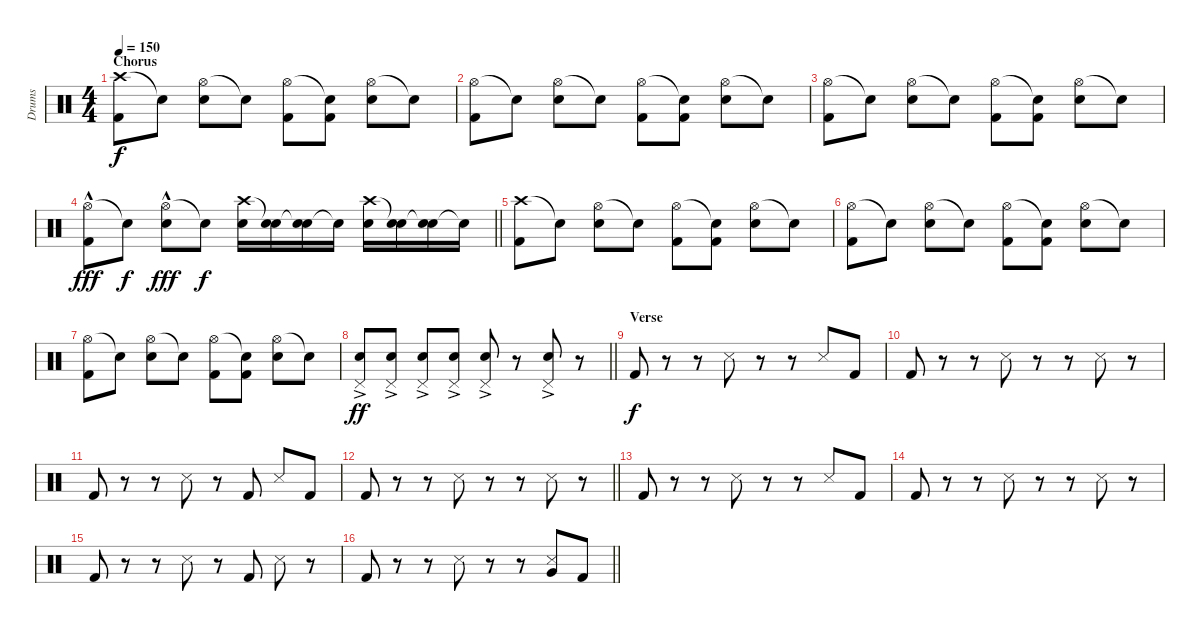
\track ("Drums" "Drums") {instrument percussion}
\staff {score}
\articulation defaults
\ts (4 4)
\section ("" "Chorus")
\tempo 150
\clef neutral
\ks c
("Crash high (hit)" "Kick (hit) 2").8{dy f} "Snare (hit)"{t}.8 ("Hi-Hat (open)" "Electric Snare (hit)").8 "Snare (hit)"{t}.8 ("Hi-Hat (open)" "Kick (hit) 2").8 ("Snare (hit)"{t} "Kick (hit) 2").8 ("Hi-Hat (open)" "Electric Snare (hit)").8 "Snare (hit)"{t}.8 |
("Hi-Hat (open)" "Kick (hit) 2").8 "Snare (hit)"{t}.8 ("Hi-Hat (open)" "Electric Snare (hit)").8 "Snare (hit)"{t}.8 ("Hi-Hat (open)" "Kick (hit) 2").8 ("Snare (hit)"{t} "Kick (hit) 2").8 ("Hi-Hat (open)" "Electric Snare (hit)").8 "Snare (hit)"{t}.8 |
("Hi-Hat (open)" "Kick (hit) 2").8 "Snare (hit)"{t}.8 ("Hi-Hat (open)" "Electric Snare (hit)").8 "Snare (hit)"{t}.8 ("Hi-Hat (open)" "Kick (hit) 2").8 ("Snare (hit)"{t} "Kick (hit) 2").8 ("Hi-Hat (open)" "Electric Snare (hit)").8 "Snare (hit)"{t}.8 |
\barLineRight lightlight
("Hi-Hat (open)"{hac} "Kick (hit) 2").8{dy fff} "Snare (hit)"{t}.8{dy f} ("Hi-Hat (open)"{hac} "Electric Snare (hit)").8{dy fff} "Snare (hit)"{t}.8{dy f} ("Crash high (hit)" "Electric Snare (hit)").16 ("Snare (hit)"{t} "Electric Snare (hit)").16 ("Snare (hit)"{t} "Electric Snare (hit)").16 "Snare (hit)"{t}.16 ("Crash high (hit)" "Electric Snare (hit)").16 ("Snare (hit)"{t} "Electric Snare (hit)").16 ("Snare (hit)"{t} "Electric Snare (hit)").16 "Snare (hit)"{t}.16 |
("Crash high (hit)" "Kick (hit) 2").8 "Snare (hit)"{t}.8 ("Hi-Hat (open)" "Electric Snare (hit)").8 "Snare (hit)"{t}.8 ("Hi-Hat (open)" "Kick (hit) 2").8 ("Snare (hit)"{t} "Kick (hit) 2").8 ("Hi-Hat (open)" "Electric Snare (hit)").8 "Snare (hit)"{t}.8 |
("Hi-Hat (open)" "Kick (hit) 2").8 "Snare (hit)"{t}.8 ("Hi-Hat (open)" "Electric Snare (hit)").8 "Snare (hit)"{t}.8 ("Hi-Hat (open)" "Kick (hit) 2").8 ("Snare (hit)"{t} "Kick (hit) 2").8 ("Hi-Hat (open)" "Electric Snare (hit)").8 "Snare (hit)"{t}.8 |
("Hi-Hat (open)" "Kick (hit) 2").8 "Snare (hit)"{t}.8 ("Hi-Hat (open)" "Electric Snare (hit)").8 "Snare (hit)"{t}.8 ("Hi-Hat (open)" "Kick (hit) 2").8 ("Snare (hit)"{t} "Kick (hit) 2").8 ("Hi-Hat (open)" "Electric Snare (hit)").8 "Snare (hit)"{t}.8 |
\barLineRight lightlight
("Pedal Hi-Hat (hit)" "Electric Snare (hit)"{ac}).8{dy ff} ("Pedal Hi-Hat (hit)" "Electric Snare (hit)"{ac}).8 ("Pedal Hi-Hat (hit)" "Electric Snare (hit)"{ac}).8 ("Pedal Hi-Hat (hit)" "Electric Snare (hit)"{ac}).8 ("Pedal Hi-Hat (hit)" "Electric Snare (hit)"{ac}).8 r.8 ("Pedal Hi-Hat (hit)" "Electric Snare (hit)"{ac}).8 r.8 |
\section ("" "Verse")
"Kick (hit) 2".8{dy f} r.8 r.8 "Snare (side stick) 3".8 r.8 r.8 "Snare (side stick) 3".8 "Kick (hit) 2".8 |
"Kick (hit) 2".8 r.8 r.8 "Snare (side stick) 3".8 r.8 r.8 "Snare (side stick) 3".8 r.8 |
"Kick (hit) 2".8 r.8 r.8 "Snare (side stick) 3".8 r.8 "Kick (hit) 2".8 "Snare (side stick) 3".8 "Kick (hit) 2".8 |
\barLineRight lightlight "Kick (hit) 2".8
r.8 r.8 "Snare (side stick) 3".8 r.8 r.8 "Snare (side stick) 3".8 r.8 |
"Kick (hit) 2".8 r.8 r.8 "Snare (side stick) 3".8 r.8 r.8 "Snare (side stick) 3".8 "Kick (hit) 2".8 |
"Kick (hit) 2".8 r.8 r.8 "Snare (side stick) 3".8 r.8 r.8 "Snare (side stick) 3".8 r.8 |
"Kick (hit) 2".8 r.8 r.8 "Snare (side stick) 3".8 r.8 "Kick (hit) 2".8 "Snare (side stick) 3".8 r.8 |
\barLineRight lightlight "Kick (hit) 2".8
r.8 r.8 "Snare (side stick) 3".8 r.8 r.8 ("Snare (side stick) 3" "Very Low Tom (hit)").8 "Kick (hit) 2".8
